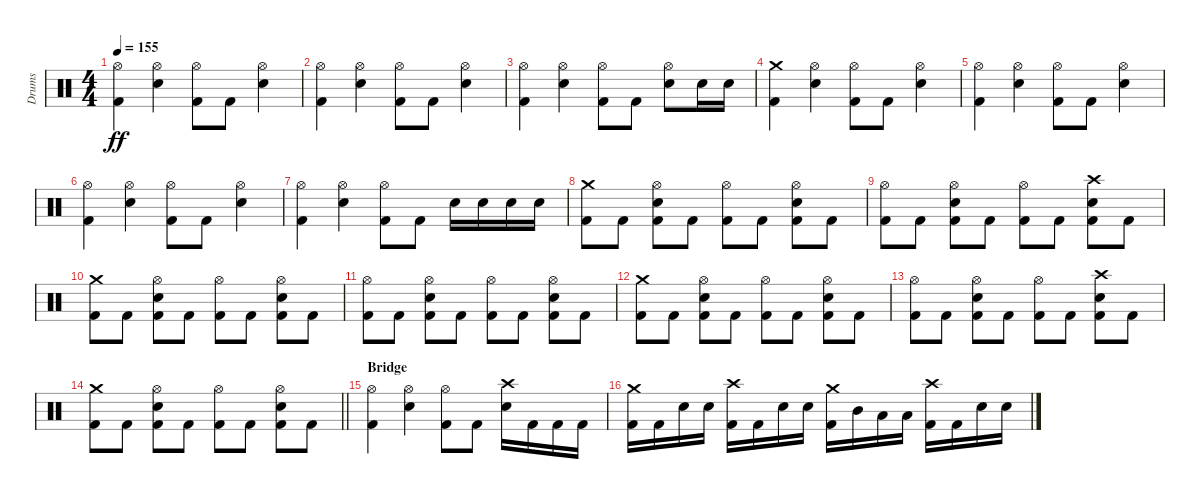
\track ("Drums" "Drums") {solo instrument percussion}
\staff {score}
\articulation defaults
\ts (4 4)
\tempo 155
\clef neutral
\ks c
("Hi-Hat (open)" "Kick (hit) 2").4{dy ff} ("Hi-Hat (open)" "Electric Snare (hit)").4 ("Hi-Hat (open)" "Kick (hit) 2").8 "Kick (hit) 2".8 ("Hi-Hat (open)" "Electric Snare (hit)").4 |
("Hi-Hat (open)" "Kick (hit) 2").4 ("Hi-Hat (open)" "Electric Snare (hit)").4 ("Hi-Hat (open)" "Kick (hit) 2").8 "Kick (hit) 2".8 ("Hi-Hat (open)" "Electric Snare (hit)").4 |
("Hi-Hat (open)" "Kick (hit) 2").4 ("Hi-Hat (open)" "Electric Snare (hit)").4 ("Hi-Hat (open)" "Kick (hit) 2").8 "Kick (hit) 2".8 ("Hi-Hat (open)" "Electric Snare (hit)").8 "Electric Snare (hit)".16 "Electric Snare (hit)".16 |
("Crash medium (hit)" "Kick (hit) 2").4 ("Hi-Hat (open)" "Electric Snare (hit)").4 ("Hi-Hat (open)" "Kick (hit) 2").8 "Kick (hit) 2".8 ("Hi-Hat (open)" "Electric Snare (hit)").4 |
("Hi-Hat (open)" "Kick (hit) 2").4 ("Hi-Hat (open)" "Electric Snare (hit)").4 ("Hi-Hat (open)" "Kick (hit) 2").8 "Kick (hit) 2".8 ("Hi-Hat (open)" "Electric Snare (hit)").4 |
("Hi-Hat (open)" "Kick (hit) 2").4 ("Hi-Hat (open)" "Electric Snare (hit)").4 ("Hi-Hat (open)" "Kick (hit) 2").8 "Kick (hit) 2".8 ("Hi-Hat (open)" "Electric Snare (hit)").4 |
("Hi-Hat (open)" "Kick (hit) 2").4 ("Hi-Hat (open)" "Electric Snare (hit)").4 ("Hi-Hat (open)" "Kick (hit) 2").8 "Kick (hit) 2".8 "Electric Snare (hit)".16 "Electric Snare (hit)".16 "Electric Snare (hit)".16 "Electric Snare (hit)".16 |
("Crash medium (hit)" "Kick (hit) 2").8 "Kick (hit) 2".8 ("Hi-Hat (open)" "Electric Snare (hit)" "Kick (hit) 2").8 "Kick (hit) 2".8 ("Hi-Hat (open)" "Kick (hit) 2").8 "Kick (hit) 2".8 ("Electric Snare (hit)" "Hi-Hat (open)" "Kick (hit) 2").8 "Kick (hit) 2".8 |
("Hi-Hat (open)" "Kick (hit) 2").8 "Kick (hit) 2".8 ("Hi-Hat (open)" "Electric Snare (hit)" "Kick (hit) 2").8 "Kick (hit) 2".8 ("Hi-Hat (open)" "Kick (hit) 2").8 "Kick (hit) 2".8 ("Electric Snare (hit)" "Crash high (hit)" "Kick (hit) 2").8 "Kick (hit) 2".8 |
("Crash medium (hit)" "Kick (hit) 2").8 "Kick (hit) 2".8 ("Hi-Hat (open)" "Electric Snare (hit)" "Kick (hit) 2").8 "Kick (hit) 2".8 ("Hi-Hat (open)" "Kick (hit) 2").8 "Kick (hit) 2".8 ("Electric Snare (hit)" "Hi-Hat (open)" "Kick (hit) 2").8 "Kick (hit) 2".8 |
("Hi-Hat (open)" "Kick (hit) 2").8 "Kick (hit) 2".8 ("Hi-Hat (open)" "Electric Snare (hit)" "Kick (hit) 2").8 "Kick (hit) 2".8 ("Hi-Hat (open)" "Kick (hit) 2").8 "Kick (hit) 2".8 ("Electric Snare (hit)" "Hi-Hat (open)" "Kick (hit) 2").8 "Kick (hit) 2".8 |
("Crash medium (hit)" "Kick (hit) 2").8 "Kick (hit) 2".8 ("Hi-Hat (open)" "Electric Snare (hit)" "Kick (hit) 2").8 "Kick (hit) 2".8 ("Hi-Hat (open)" "Kick (hit) 2").8 "Kick (hit) 2".8 ("Electric Snare (hit)" "Hi-Hat (open)" "Kick (hit) 2").8 "Kick (hit) 2".8 |
("Hi-Hat (open)" "Kick (hit) 2").8 "Kick (hit) 2".8 ("Hi-Hat (open)" "Electric Snare (hit)" "Kick (hit) 2").8 "Kick (hit) 2".8 ("Hi-Hat (open)" "Kick (hit) 2").8 "Kick (hit) 2".8 ("Electric Snare (hit)" "Crash high (hit)" "Kick (hit) 2").8 "Kick (hit) 2".8 |
\barLineRight lightlight
("Crash medium (hit)" "Kick (hit) 2").8 "Kick (hit) 2".8 ("Hi-Hat (open)" "Electric Snare (hit)" "Kick (hit) 2").8 "Kick (hit) 2".8 ("Hi-Hat (open)" "Kick (hit) 2").8 "Kick (hit) 2".8 ("Electric Snare (hit)" "Hi-Hat (open)" "Kick (hit) 2").8 "Kick (hit) 2".8 |
\section ("" "Bridge")
("Hi-Hat (open)" "Kick (hit) 2").4 ("Hi-Hat (open)" "Electric Snare (hit)").4 ("Hi-Hat (open)" "Kick (hit) 2").8 "Kick (hit) 2".8 ("Crash high (hit)" "Electric Snare (hit)").16 "Kick (hit) 2".16 "Kick (hit) 2".16 "Kick (hit) 2".16 |
("Crash medium (hit)" "Kick (hit) 2").16 "Kick (hit) 2".16 "Electric Snare (hit)".16 "Electric Snare (hit)".16 ("Crash high (hit)" "Kick (hit) 2").16 "Kick (hit) 2".16 "Electric Snare (hit)".16 "Electric Snare (hit)".16 ("Crash medium (hit)" "Kick (hit) 2").16 "Mid Tom (hit)".16 "Low Tom (hit)".16 "Low Tom (hit)".16 ("Crash high (hit)" "Kick (hit) 2").16 "Kick (hit) 2".16 "Electric Snare (hit)".16 "Electric Snare (hit)".16
